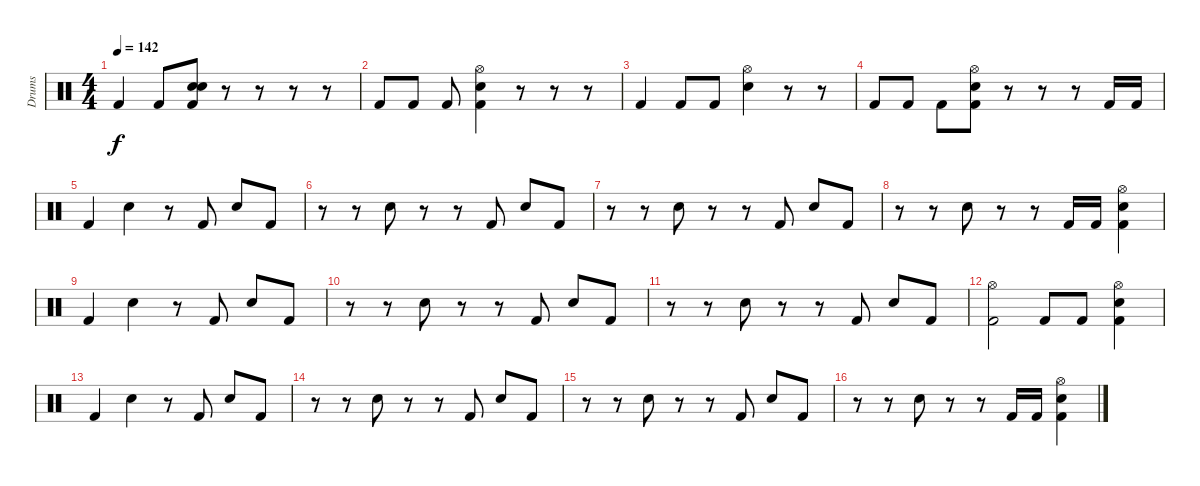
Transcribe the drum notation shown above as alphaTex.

\track ("Drums" "Drums") {instrument percussion}
\staff {score}
\articulation defaults
\ts (4 4)
\tempo 142
\clef neutral
\ks c "Kick (hit) 2".4{dy f} "Kick (hit) 2".8
("Hand Clap (hit)" "Snare (hit) 2" "Kick (hit) 2").8 r.8 r.8 r.8 r.8 |
"Kick (hit) 2".8 "Kick (hit) 2".8 "Kick (hit) 2".8 ("Hi-Hat (open)" "Snare (hit) 2" "Kick (hit) 2").4 r.8 r.8 r.8 |
"Kick (hit) 2".4 "Kick (hit) 2".8 "Kick (hit) 2".8 ("Hi-Hat (open)" "Snare (hit) 2").4 r.8 r.8 |
"Kick (hit) 2".8 "Kick (hit) 2".8 "Kick (hit) 2".8 ("Hi-Hat (open)" "Snare (hit) 2" "Kick (hit) 2").8 r.8 r.8 r.8 "Kick (hit) 2".16 "Kick (hit) 2".16 |
"Kick (hit) 2".4 "Snare (hit) 2".4 r.8 "Kick (hit) 2".8 "Snare (hit) 2".8 "Kick (hit) 2".8 |
r.8 r.8 "Snare (hit) 2".8 r.8 r.8 "Kick (hit) 2".8 "Snare (hit) 2".8 "Kick (hit) 2".8 |
r.8 r.8 "Snare (hit) 2".8 r.8 r.8 "Kick (hit) 2".8 "Snare (hit) 2".8 "Kick (hit) 2".8 |
r.8 r.8 "Snare (hit) 2".8 r.8 r.8 "Kick (hit) 2".16 "Kick (hit) 2".16 ("Hi-Hat (open)" "Snare (hit) 2" "Kick (hit) 2").4 |
"Kick (hit) 2".4 "Snare (hit) 2".4 r.8 "Kick (hit) 2".8 "Snare (hit) 2".8 "Kick (hit) 2".8 |
r.8 r.8 "Snare (hit) 2".8 r.8 r.8 "Kick (hit) 2".8 "Snare (hit) 2".8 "Kick (hit) 2".8 |
r.8 r.8 "Snare (hit) 2".8 r.8 r.8 "Kick (hit) 2".8 "Snare (hit) 2".8 "Kick (hit) 2".8 |
("Hi-Hat (open)" "Kick (hit) 2").2 "Kick (hit) 2".8 "Kick (hit) 2".8 ("Hi-Hat (open)" "Snare (hit) 2" "Kick (hit) 2").4 |
"Kick (hit) 2".4 "Snare (hit) 2".4 r.8 "Kick (hit) 2".8 "Snare (hit) 2".8 "Kick (hit) 2".8 |
r.8 r.8 "Snare (hit) 2".8 r.8 r.8 "Kick (hit) 2".8 "Snare (hit) 2".8 "Kick (hit) 2".8 |
r.8 r.8 "Snare (hit) 2".8 r.8 r.8 "Kick (hit) 2".8 "Snare (hit) 2".8 "Kick (hit) 2".8 |
r.8 r.8 "Snare (hit) 2".8 r.8 r.8 "Kick (hit) 2".16 "Kick (hit) 2".16 ("Hi-Hat (open)" "Snare (hit) 2" "Kick (hit) 2").4
